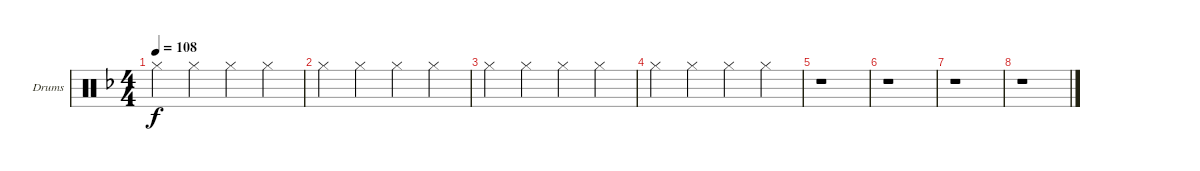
\defaultSystemsLayout 4
\bracketExtendMode groupsimilarinstruments
\firstSystemTrackNameOrientation horizontal
\otherSystemsTrackNameOrientation horizontal
\track ("Drumkit" "Drums") {instrument percussion}
\staff {score}
\articulation defaults
\ts (4 4)
\tempo 108
\clef neutral
\ks f "Hi-Hat (closed)".4{dy f} "Hi-Hat (closed)".4 "Hi-Hat (closed)".4 "Hi-Hat (closed)".4
|
"Hi-Hat (closed)".4 "Hi-Hat (closed)".4 "Hi-Hat (closed)".4 "Hi-Hat (closed)".4 |
"Hi-Hat (closed)".4 "Hi-Hat (closed)".4 "Hi-Hat (closed)".4 "Hi-Hat (closed)".4 |
"Hi-Hat (closed)".4 "Hi-Hat (closed)".4 "Hi-Hat (closed)".4 "Hi-Hat (closed)".4 |
r.1 |
r.1 |
r.1 |
r.1
